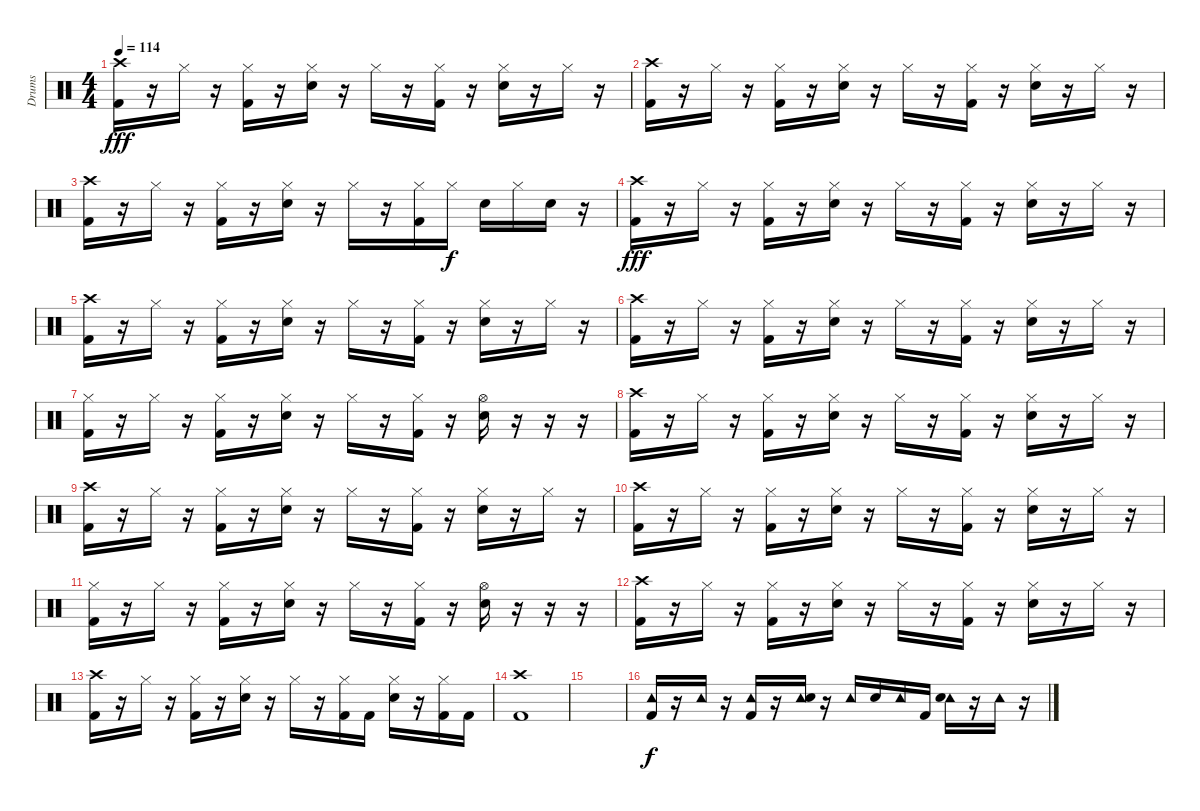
\track ("Drums" "Drums") {instrument percussion bank 127}
\staff {score}
\articulation defaults
\ts (4 4)
\tempo 114
\clef neutral
\ks c
("Crash high (hit)" "Kick (hit) 2").16{dy fff} r.16 "Hi-Hat (closed)".16 r.16 ("Hi-Hat (closed)" "Kick (hit) 2").16 r.16 ("Hi-Hat (closed)" "Electric Snare (hit)").16 r.16 "Hi-Hat (closed)".16 r.16 ("Hi-Hat (closed)" "Kick (hit) 2").16 r.16 ("Hi-Hat (closed)" "Electric Snare (hit)").16 r.16 "Hi-Hat (closed)".16 r.16 |
("Crash high (hit)" "Kick (hit) 2").16 r.16 "Hi-Hat (closed)".16 r.16 ("Hi-Hat (closed)" "Kick (hit) 2").16 r.16 ("Hi-Hat (closed)" "Electric Snare (hit)").16 r.16 "Hi-Hat (closed)".16 r.16 ("Hi-Hat (closed)" "Kick (hit) 2").16 r.16 ("Hi-Hat (closed)" "Electric Snare (hit)").16 r.16 "Hi-Hat (closed)".16 r.16 |
("Crash high (hit)" "Kick (hit) 2").16 r.16 "Hi-Hat (closed)".16 r.16 ("Hi-Hat (closed)" "Kick (hit) 2").16 r.16 ("Hi-Hat (closed)" "Electric Snare (hit)").16 r.16 "Hi-Hat (closed)".16 r.16 ("Hi-Hat (closed)" "Kick (hit) 2").16 "Hi-Hat (closed)".16{dy f} "Electric Snare (hit)".16 "Hi-Hat (closed)".16 "Electric Snare (hit)".16 r.16 |
("Crash high (hit)" "Kick (hit) 2").16{dy fff} r.16 "Hi-Hat (closed)".16 r.16 ("Hi-Hat (closed)" "Kick (hit) 2").16 r.16 ("Hi-Hat (closed)" "Electric Snare (hit)").16 r.16 "Hi-Hat (closed)".16 r.16 ("Hi-Hat (closed)" "Kick (hit) 2").16 r.16 ("Hi-Hat (closed)" "Electric Snare (hit)").16 r.16 "Hi-Hat (closed)".16 r.16 |
("Crash high (hit)" "Kick (hit) 2").16 r.16 "Hi-Hat (closed)".16 r.16 ("Hi-Hat (closed)" "Kick (hit) 2").16 r.16 ("Hi-Hat (closed)" "Electric Snare (hit)").16 r.16 "Hi-Hat (closed)".16 r.16 ("Hi-Hat (closed)" "Kick (hit) 2").16 r.16 ("Hi-Hat (closed)" "Electric Snare (hit)").16 r.16 "Hi-Hat (closed)".16 r.16 |
("Crash high (hit)" "Kick (hit) 2").16 r.16 "Hi-Hat (closed)".16 r.16 ("Hi-Hat (closed)" "Kick (hit) 2").16 r.16 ("Hi-Hat (closed)" "Electric Snare (hit)").16 r.16 "Hi-Hat (closed)".16 r.16 ("Hi-Hat (closed)" "Kick (hit) 2").16 r.16 ("Hi-Hat (closed)" "Electric Snare (hit)").16 r.16 "Hi-Hat (closed)".16 r.16 |
("Hi-Hat (closed)" "Kick (hit) 2").16 r.16 "Hi-Hat (closed)".16 r.16 ("Hi-Hat (closed)" "Kick (hit) 2").16 r.16 ("Hi-Hat (closed)" "Electric Snare (hit)").16 r.16 "Hi-Hat (closed)".16 r.16 ("Hi-Hat (closed)" "Kick (hit) 2").16 r.16 ("Hi-Hat (open)" "Electric Snare (hit)").16 r.16 r.16 r.16 |
("Crash high (hit)" "Kick (hit) 2").16 r.16 "Hi-Hat (closed)".16 r.16 ("Hi-Hat (closed)" "Kick (hit) 2").16 r.16 ("Hi-Hat (closed)" "Electric Snare (hit)").16 r.16 "Hi-Hat (closed)".16 r.16 ("Hi-Hat (closed)" "Kick (hit) 2").16 r.16 ("Hi-Hat (closed)" "Electric Snare (hit)").16 r.16 "Hi-Hat (closed)".16 r.16 |
("Crash high (hit)" "Kick (hit) 2").16 r.16 "Hi-Hat (closed)".16 r.16 ("Hi-Hat (closed)" "Kick (hit) 2").16 r.16 ("Hi-Hat (closed)" "Electric Snare (hit)").16 r.16 "Hi-Hat (closed)".16 r.16 ("Hi-Hat (closed)" "Kick (hit) 2").16 r.16 ("Hi-Hat (closed)" "Electric Snare (hit)").16 r.16 "Hi-Hat (closed)".16 r.16 |
("Crash high (hit)" "Kick (hit) 2").16 r.16 "Hi-Hat (closed)".16 r.16 ("Hi-Hat (closed)" "Kick (hit) 2").16 r.16 ("Hi-Hat (closed)" "Electric Snare (hit)").16 r.16 "Hi-Hat (closed)".16 r.16 ("Hi-Hat (closed)" "Kick (hit) 2").16 r.16 ("Hi-Hat (closed)" "Electric Snare (hit)").16 r.16 "Hi-Hat (closed)".16 r.16 |
("Hi-Hat (closed)" "Kick (hit) 2").16 r.16 "Hi-Hat (closed)".16 r.16 ("Hi-Hat (closed)" "Kick (hit) 2").16 r.16 ("Hi-Hat (closed)" "Electric Snare (hit)").16 r.16 "Hi-Hat (closed)".16 r.16 ("Hi-Hat (closed)" "Kick (hit) 2").16 r.16 ("Hi-Hat (open)" "Electric Snare (hit)").16 r.16 r.16 r.16 |
("Crash high (hit)" "Kick (hit) 2").16 r.16 "Hi-Hat (closed)".16 r.16 ("Hi-Hat (closed)" "Kick (hit) 2").16 r.16 ("Hi-Hat (closed)" "Electric Snare (hit)").16 r.16 "Hi-Hat (closed)".16 r.16 ("Hi-Hat (closed)" "Kick (hit) 2").16 r.16 ("Hi-Hat (closed)" "Electric Snare (hit)").16 r.16 "Hi-Hat (closed)".16 r.16 |
("Crash high (hit)" "Kick (hit) 2").16 r.16 "Hi-Hat (closed)".16 r.16 ("Hi-Hat (closed)" "Kick (hit) 2").16 r.16 ("Hi-Hat (closed)" "Electric Snare (hit)").16 r.16 "Hi-Hat (closed)".16 r.16 ("Hi-Hat (closed)" "Kick (hit) 2").16 "Kick (hit) 2".16 ("Hi-Hat (closed)" "Electric Snare (hit)").16 r.16 ("Hi-Hat (closed)" "Kick (hit) 2").16 "Kick (hit) 2".16 |
("Crash high (hit)" "Kick (hit) 2").1 |
|
("Tambourine (hit)" "Kick (hit) 2").16{dy f} r.16 "Tambourine (hit)".16 r.16 ("Tambourine (hit)" "Kick (hit) 2").16 r.16 ("Tambourine (hit)" "Electric Snare (hit)").16 r.16 "Tambourine (hit)".16 "Electric Snare (hit)".16 "Tambourine (hit)".16 "Kick (hit) 2".16 ("Tambourine (hit)" "Electric Snare (hit)").16 r.16 "Tambourine (hit)".16 r.16
